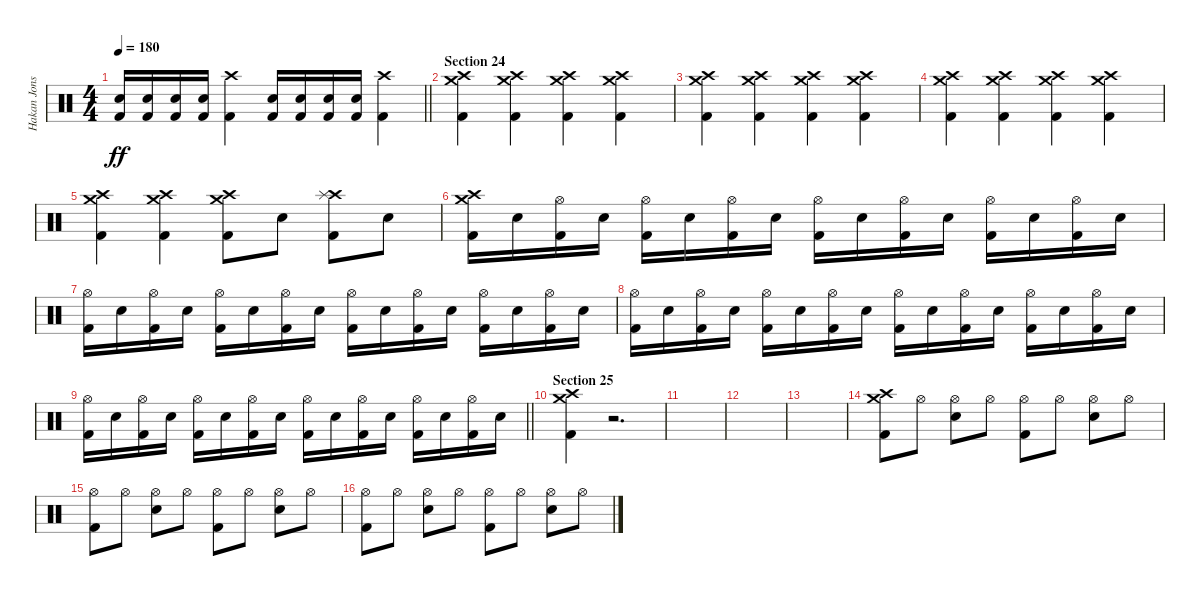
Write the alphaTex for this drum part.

\track ("Hakan Jonsson" "Hakan Jons") {instrument percussion}
\staff {score}
\articulation defaults
\ts (4 4)
\tempo 180
\clef neutral
\barLineRight lightlight
\ks c
("Electric Snare (hit)" "Kick (hit) 2").16{dy ff} ("Electric Snare (hit)" "Kick (hit) 2").16 ("Electric Snare (hit)" "Kick (hit) 2").16 ("Electric Snare (hit)" "Kick (hit) 2").16 ("Crash high (hit)" "Kick (hit) 2").4 ("Electric Snare (hit)" "Kick (hit) 2").16 ("Electric Snare (hit)" "Kick (hit) 2").16 ("Electric Snare (hit)" "Kick (hit) 2").16 ("Electric Snare (hit)" "Kick (hit) 2").16 ("Crash high (hit)" "Kick (hit) 2").4 |
\section ("" "Section 24")
("Crash high (hit)" "Crash medium (hit)" "Kick (hit) 2").4 ("Crash high (hit)" "Crash medium (hit)" "Kick (hit) 2").4 ("Crash high (hit)" "Crash medium (hit)" "Kick (hit) 2").4 ("Crash high (hit)" "Crash medium (hit)" "Kick (hit) 2").4 |
("Crash high (hit)" "Crash medium (hit)" "Kick (hit) 2").4 ("Crash high (hit)" "Crash medium (hit)" "Kick (hit) 2").4 ("Crash high (hit)" "Crash medium (hit)" "Kick (hit) 2").4 ("Crash high (hit)" "Crash medium (hit)" "Kick (hit) 2").4 |
("Crash high (hit)" "Crash medium (hit)" "Kick (hit) 2").4 ("Crash high (hit)" "Crash medium (hit)" "Kick (hit) 2").4 ("Crash high (hit)" "Crash medium (hit)" "Kick (hit) 2").4 ("Crash high (hit)" "Crash medium (hit)" "Kick (hit) 2").4 |
("Crash high (hit)" "Crash medium (hit)" "Kick (hit) 2").4 ("Crash high (hit)" "Crash medium (hit)" "Kick (hit) 2").4 ("Crash high (hit)" "Crash medium (hit)" "Kick (hit) 2").8 "Electric Snare (hit)".8 ("Crash high (hit)" "Splash (hit)" "Kick (hit) 2").8 "Electric Snare (hit)".8 |
("Crash high (hit)" "Crash medium (hit)" "Kick (hit) 2").16 "Electric Snare (hit)".16 ("Hi-Hat (open)" "Kick (hit) 2").16 "Electric Snare (hit)".16 ("Hi-Hat (open)" "Kick (hit) 2").16 "Electric Snare (hit)".16 ("Hi-Hat (open)" "Kick (hit) 2").16 "Electric Snare (hit)".16 ("Hi-Hat (open)" "Kick (hit) 2").16 "Electric Snare (hit)".16 ("Hi-Hat (open)" "Kick (hit) 2").16 "Electric Snare (hit)".16 ("Hi-Hat (open)" "Kick (hit) 2").16 "Electric Snare (hit)".16 ("Hi-Hat (open)" "Kick (hit) 2").16 "Electric Snare (hit)".16 |
("Hi-Hat (open)" "Kick (hit) 2").16 "Electric Snare (hit)".16 ("Hi-Hat (open)" "Kick (hit) 2").16 "Electric Snare (hit)".16 ("Hi-Hat (open)" "Kick (hit) 2").16 "Electric Snare (hit)".16 ("Hi-Hat (open)" "Kick (hit) 2").16 "Electric Snare (hit)".16 ("Hi-Hat (open)" "Kick (hit) 2").16 "Electric Snare (hit)".16 ("Hi-Hat (open)" "Kick (hit) 2").16 "Electric Snare (hit)".16 ("Hi-Hat (open)" "Kick (hit) 2").16 "Electric Snare (hit)".16 ("Hi-Hat (open)" "Kick (hit) 2").16 "Electric Snare (hit)".16 |
("Hi-Hat (open)" "Kick (hit) 2").16 "Electric Snare (hit)".16 ("Hi-Hat (open)" "Kick (hit) 2").16 "Electric Snare (hit)".16 ("Hi-Hat (open)" "Kick (hit) 2").16 "Electric Snare (hit)".16 ("Hi-Hat (open)" "Kick (hit) 2").16 "Electric Snare (hit)".16 ("Hi-Hat (open)" "Kick (hit) 2").16 "Electric Snare (hit)".16 ("Hi-Hat (open)" "Kick (hit) 2").16 "Electric Snare (hit)".16 ("Hi-Hat (open)" "Kick (hit) 2").16 "Electric Snare (hit)".16 ("Hi-Hat (open)" "Kick (hit) 2").16 "Electric Snare (hit)".16 |
\barLineRight lightlight
("Hi-Hat (open)" "Kick (hit) 2").16 "Electric Snare (hit)".16 ("Hi-Hat (open)" "Kick (hit) 2").16 "Electric Snare (hit)".16 ("Hi-Hat (open)" "Kick (hit) 2").16 "Electric Snare (hit)".16 ("Hi-Hat (open)" "Kick (hit) 2").16 "Electric Snare (hit)".16 ("Hi-Hat (open)" "Kick (hit) 2").16 "Electric Snare (hit)".16 ("Hi-Hat (open)" "Kick (hit) 2").16 "Electric Snare (hit)".16 ("Hi-Hat (open)" "Kick (hit) 2").16 "Electric Snare (hit)".16 ("Hi-Hat (open)" "Kick (hit) 2").16 "Electric Snare (hit)".16 |
\section ("" "Section 25")
("Crash high (hit)" "Crash medium (hit)" "Kick (hit) 2").4 r.2{d} |
|
|
|
("Crash high (hit)" "Crash medium (hit)" "Kick (hit) 2").8 "Hi-Hat (open)".8 ("Hi-Hat (open)" "Electric Snare (hit)").8 "Hi-Hat (open)".8 ("Hi-Hat (open)" "Kick (hit) 2").8 "Hi-Hat (open)".8 ("Hi-Hat (open)" "Electric Snare (hit)").8 "Hi-Hat (open)".8 |
("Hi-Hat (open)" "Kick (hit) 2").8 "Hi-Hat (open)".8 ("Hi-Hat (open)" "Electric Snare (hit)").8 "Hi-Hat (open)".8 ("Hi-Hat (open)" "Kick (hit) 2").8 "Hi-Hat (open)".8 ("Hi-Hat (open)" "Electric Snare (hit)").8 "Hi-Hat (open)".8 |
("Hi-Hat (open)" "Kick (hit) 2").8 "Hi-Hat (open)".8 ("Hi-Hat (open)" "Electric Snare (hit)").8 "Hi-Hat (open)".8 ("Hi-Hat (open)" "Kick (hit) 2").8 "Hi-Hat (open)".8 ("Hi-Hat (open)" "Electric Snare (hit)").8 "Hi-Hat (open)".8
